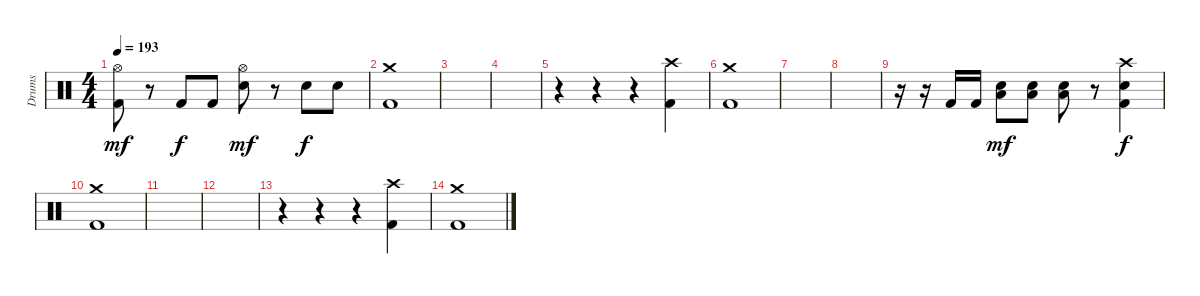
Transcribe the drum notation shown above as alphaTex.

\track ("Drums" "Drums") {instrument percussion}
\staff {score}
\articulation defaults
\ts (4 4)
\tempo 193
\clef neutral
\ks c
("Hi-Hat (open)" "Kick (hit) 2").8{dy mf} r.8 "Kick (hit) 2".8{dy f} "Kick (hit) 2".8 ("Hi-Hat (open)" "Snare (hit) 2").8{dy mf} r.8 "Snare (hit) 2".8{dy f} "Snare (hit) 2".8 |
("Crash medium (hit)" "Kick (hit) 2").1 |
|
|
r.4 r.4 r.4 ("Crash high (hit)" "Kick (hit) 2").4 |
("Crash medium (hit)" "Kick (hit) 2").1 |
|
|
r.16 r.16 "Kick (hit) 2".16 "Kick (hit) 2".16 ("Low Floor Tom (hit)" "Snare (hit) 2").8{dy mf} ("Low Floor Tom (hit)" "Snare (hit) 2").8 ("Low Floor Tom (hit)" "Snare (hit) 2").8 r.8 ("Crash high (hit)" "Snare (hit) 2" "Kick (hit) 2").4{dy f} |
("Crash medium (hit)" "Kick (hit) 2").1 |
|
|
r.4 r.4 r.4 ("Crash high (hit)" "Kick (hit) 2").4 |
("Crash medium (hit)" "Kick (hit) 2").1
